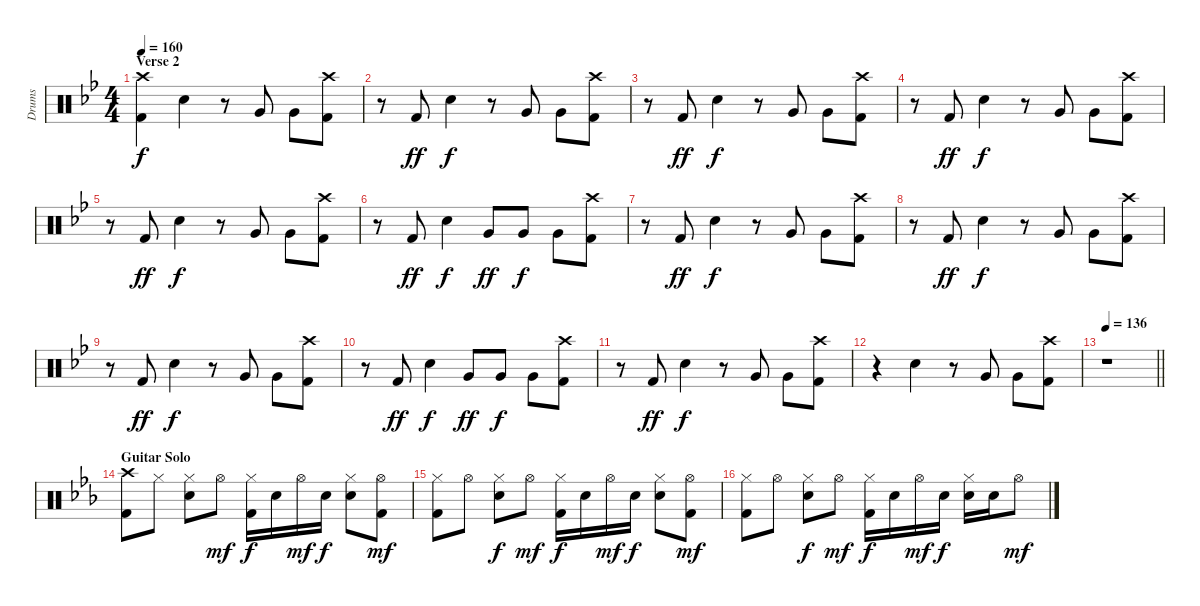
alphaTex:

\track ("Drums" "Drums") {instrument percussion}
\staff {score}
\articulation defaults
\ts (4 4)
\section ("" "Verse 2")
\tempo 160
\clef neutral
\ks bb
("Crash high (hit)" "Kick (hit) 2").4{dy f} "Electric Snare (hit)".4 r.8 "Very Low Tom (hit)".8 "Very Low Tom (hit)".8 ("Crash high (hit)" "Kick (hit) 2").8 |
r.8 "Kick (hit) 2".8{dy ff} "Electric Snare (hit)".4{dy f} r.8 "Very Low Tom (hit)".8 "Very Low Tom (hit)".8 ("Crash high (hit)" "Kick (hit) 2").8 |
r.8 "Kick (hit) 2".8{dy ff} "Electric Snare (hit)".4{dy f} r.8 "Very Low Tom (hit)".8 "Very Low Tom (hit)".8 ("Crash high (hit)" "Kick (hit) 2").8 |
r.8 "Kick (hit) 2".8{dy ff} "Electric Snare (hit)".4{dy f} r.8 "Very Low Tom (hit)".8 "Very Low Tom (hit)".8 ("Crash high (hit)" "Kick (hit) 2").8 |
r.8 "Kick (hit) 2".8{dy ff} "Electric Snare (hit)".4{dy f} r.8 "Very Low Tom (hit)".8 "Very Low Tom (hit)".8 ("Crash high (hit)" "Kick (hit) 2").8 |
r.8 "Kick (hit) 2".8{dy ff} "Electric Snare (hit)".4{dy f} "Very Low Tom (hit)".8{dy ff} "Very Low Tom (hit)".8{dy f} "Very Low Tom (hit)".8 ("Crash high (hit)" "Kick (hit) 2").8 |
r.8 "Kick (hit) 2".8{dy ff} "Electric Snare (hit)".4{dy f} r.8 "Very Low Tom (hit)".8 "Very Low Tom (hit)".8 ("Crash high (hit)" "Kick (hit) 2").8 |
r.8 "Kick (hit) 2".8{dy ff} "Electric Snare (hit)".4{dy f} r.8 "Very Low Tom (hit)".8 "Very Low Tom (hit)".8 ("Crash high (hit)" "Kick (hit) 2").8 |
r.8 "Kick (hit) 2".8{dy ff} "Electric Snare (hit)".4{dy f} r.8 "Very Low Tom (hit)".8 "Very Low Tom (hit)".8 ("Crash high (hit)" "Kick (hit) 2").8 |
r.8 "Kick (hit) 2".8{dy ff} "Electric Snare (hit)".4{dy f} "Very Low Tom (hit)".8{dy ff} "Very Low Tom (hit)".8{dy f} "Very Low Tom (hit)".8 ("Crash high (hit)" "Kick (hit) 2").8 |
r.8 "Kick (hit) 2".8{dy ff} "Electric Snare (hit)".4{dy f} r.8 "Very Low Tom (hit)".8 "Very Low Tom (hit)".8 ("Crash high (hit)" "Kick (hit) 2").8 |
r.4 "Electric Snare (hit)".4 r.8 "Very Low Tom (hit)".8 "Very Low Tom (hit)".8 ("Crash high (hit)" "Kick (hit) 2").8 |
\tempo 136
\barLineRight lightlight
r.1 |
\section ("" "Guitar Solo")
\ks eb
("Crash high (hit)" "Kick (hit) 2").8 "Hi-Hat (closed)".8 ("Hi-Hat (closed)" "Electric Snare (hit)").8 "Hi-Hat (open)".8{dy mf} ("Hi-Hat (closed)" "Kick (hit) 2").16{dy f} "Electric Snare (hit)".16 "Hi-Hat (open)".16{dy mf} "Electric Snare (hit)".16{dy f} ("Hi-Hat (closed)" "Electric Snare (hit)").8 ("Hi-Hat (open)" "Kick (hit) 2").8{dy mf} |
("Hi-Hat (closed)" "Kick (hit) 2").8 "Hi-Hat (open)".8 ("Hi-Hat (closed)" "Electric Snare (hit)").8{dy f} "Hi-Hat (open)".8{dy mf} ("Hi-Hat (closed)" "Kick (hit) 2").16{dy f} "Electric Snare (hit)".16 "Hi-Hat (open)".16{dy mf} "Electric Snare (hit)".16{dy f} ("Hi-Hat (closed)" "Electric Snare (hit)").8 ("Hi-Hat (open)" "Kick (hit) 2").8{dy mf} |
("Hi-Hat (closed)" "Kick (hit) 2").8 "Hi-Hat (open)".8 ("Hi-Hat (closed)" "Electric Snare (hit)").8{dy f} "Hi-Hat (open)".8{dy mf} ("Hi-Hat (closed)" "Kick (hit) 2").16{dy f} "Electric Snare (hit)".16 "Hi-Hat (open)".16{dy mf} "Electric Snare (hit)".16{dy f} ("Hi-Hat (closed)" "Electric Snare (hit)").16 "Electric Snare (hit)".16 "Hi-Hat (open)".8{dy mf}
